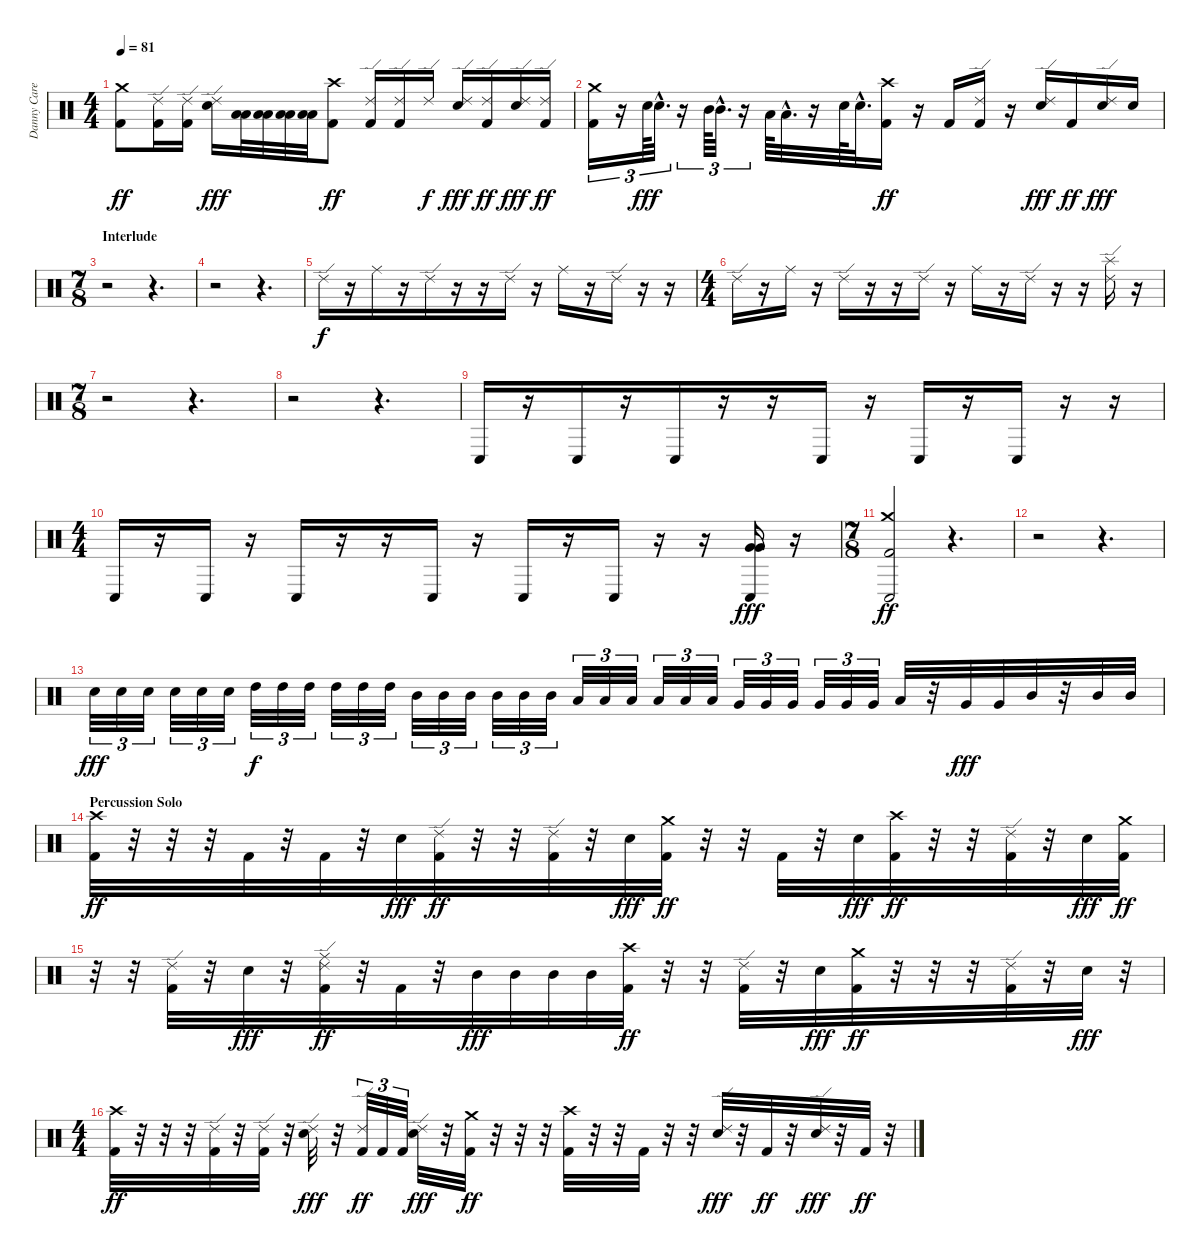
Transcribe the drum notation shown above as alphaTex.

\track ("Danny Carey" "Danny Care") {instrument percussion}
\staff {score}
\articulation defaults
\ts (4 4)
\tempo 81
\clef neutral
\ks c
("Crash medium (hit)" "Kick (hit) 2").8{dy ff} ("Ride (edge) 2" "Kick (hit) 2").16 ("Ride (edge) 2" "Kick (hit) 2").16 ("Ride (edge) 2" "Electric Snare (hit)").16{dy fff} ("Low Tom (hit)" "Low Tom (hit)").32 ("Low Tom (hit)" "Low Tom (hit)").32 ("Low Tom (hit)" "Low Tom (hit)").32 ("Low Tom (hit)" "Low Tom (hit)").32 ("Crash high (hit)" "Kick (hit) 2").8{dy ff} ("Ride (edge) 2" "Kick (hit) 2").16 ("Ride (edge) 2" "Kick (hit) 2").16 "Ride (edge) 2".16{dy f} ("Ride (edge) 2" "Electric Snare (hit)").16{dy fff} ("Ride (edge) 2" "Kick (hit) 2").16{dy ff} ("Ride (edge) 2" "Electric Snare (hit)").16{dy fff} ("Ride (edge) 2" "Kick (hit) 2").16{dy ff} |
("Crash medium (hit)" "Kick (hit) 2").16{tu (3 2)} r.16{tu (3 2)} "Electric Snare (hit)".64{tu (3 2) dy fff} "Electric Snare (hit)"{hac}.32{d tu (3 2)} r.16{tu (3 2)} "Mid Tom (hit)".64{tu (3 2)} "Mid Tom (hit)"{hac}.32{d tu (3 2)} r.16{tu (3 2)} "Low Tom (hit)".64 "Low Tom (hit)"{hac}.32{d} r.16 "Electric Snare (hit)".64 "Electric Snare (hit)"{hac}.32{d} ("Crash high (hit)" "Kick (hit) 2").16{dy ff} r.16 "Kick (hit) 2".16 ("Ride (edge) 2" "Kick (hit) 2").16 r.16 ("Ride (edge) 2" "Electric Snare (hit)").16{dy fff} "Kick (hit) 2".16{dy ff} ("Ride (edge) 2" "Electric Snare (hit)").16{dy fff} "Electric Snare (hit)".16 |
\ts (7 8)
\section ("" "Interlude")
r.2 r.4{d} |
r.2 r.4{d} |
"Ride (edge) 2".16{dy f} r.16 "Ride (middle)".16 r.16 "Ride (edge) 2".16 r.16 r.16 "Ride (edge) 2".16 r.16 "Ride (middle)".16 r.16 "Ride (edge) 2".16 r.16 r.16 |
\ts (4 4)
"Ride (edge) 2".16 r.16 "Ride (middle)".16 r.16 "Ride (edge) 2".16 r.16 r.16 "Ride (edge) 2".16 r.16 "Ride (middle)".16 r.16 "Ride (edge) 2".16 r.16 r.16 ("Splash (hit)" "Ride (edge) 2").16 r.16 |
\ts (7 8)
r.2 r.4{d} |
r.2 r.4{d} |
"Conga low (hit)".16 r.16 "Conga low (hit)".16 r.16 "Conga low (hit)".16 r.16 r.16 "Conga low (hit)".16 r.16 "Conga low (hit)".16 r.16 "Conga low (hit)".16 r.16 r.16 |
\ts (4 4)
"Conga low (hit)".16 r.16 "Conga low (hit)".16 r.16 "Conga low (hit)".16 r.16 r.16 "Conga low (hit)".16 r.16 "Conga low (hit)".16 r.16 "Conga low (hit)".16 r.16 r.16 ("Conga low (hit)" "Very Low Tom (hit)" "Very Low Tom (hit)").16{dy fff} r.16 |
\ts (7 8)
("Crash medium (hit)" "Conga low (hit)" "Kick (hit) 2").2{dy ff} r.4{d} |
r.2 r.4{d} |
"Electric Snare (hit)".32{tu (3 2) dy fff} "Electric Snare (hit)".32{tu (3 2)} "Electric Snare (hit)".32{tu (3 2)} "Electric Snare (hit)".32{tu (3 2)} "Electric Snare (hit)".32{tu (3 2)} "Electric Snare (hit)".32{tu (3 2)} "High Tom (hit)".32{tu (3 2) dy f} "High Tom (hit)".32{tu (3 2)} "High Tom (hit)".32{tu (3 2)} "High Tom (hit)".32{tu (3 2)} "High Tom (hit)".32{tu (3 2)} "High Tom (hit)".32{tu (3 2)} "Mid Tom (hit)".32{tu (3 2)} "Mid Tom (hit)".32{tu (3 2)} "Mid Tom (hit)".32{tu (3 2)} "Mid Tom (hit)".32{tu (3 2)} "Mid Tom (hit)".32{tu (3 2)} "Mid Tom (hit)".32{tu (3 2)} "Low Tom (hit)".32{tu (3 2)} "Low Tom (hit)".32{tu (3 2)} "Low Tom (hit)".32{tu (3 2)} "Low Tom (hit)".32{tu (3 2)} "Low Tom (hit)".32{tu (3 2)} "Low Tom (hit)".32{tu (3 2)} "Very Low Tom (hit)".32{tu (3 2)} "Very Low Tom (hit)".32{tu (3 2)} "Very Low Tom (hit)".32{tu (3 2)} "Very Low Tom (hit)".32{tu (3 2)} "Very Low Tom (hit)".32{tu (3 2)} "Very Low Tom (hit)".32{tu (3 2)} "Low Floor Tom (hit)".32 r.32 "Very Low Tom (hit)".32{dy fff} "Very Low Tom (hit)".32 "Mid Tom (hit)".32 r.32 "Mid Tom (hit)".32 "Mid Tom (hit)".32 |
\section ("" "Percussion Solo")
("Crash high (hit)" "Kick (hit) 2").32{dy ff} r.32 r.32 r.32 "Kick (hit) 2".32 r.32 "Kick (hit) 2".32 r.32 "Electric Snare (hit)".32{dy fff} ("Ride (edge) 2" "Kick (hit) 2").32{dy ff} r.32 r.32 ("Ride (edge) 2" "Kick (hit) 2").32 r.32 "Electric Snare (hit)".32{dy fff} ("Crash medium (hit)" "Kick (hit) 2").32{dy ff} r.32 r.32 "Kick (hit) 2".32 r.32 "Electric Snare (hit)".32{dy fff} ("Crash high (hit)" "Kick (hit) 2").32{dy ff} r.32 r.32 ("Ride (edge) 2" "Kick (hit) 2").32 r.32 "Electric Snare (hit)".32{dy fff} ("Crash medium (hit)" "Kick (hit) 2").32{dy ff} |
r.32 r.32 ("Ride (edge) 2" "Kick (hit) 2").32 r.32 "Electric Snare (hit)".32{dy fff} r.32 ("Ride (edge) 2" "Ride (middle)" "Kick (hit) 2").32{dy ff} r.32 "Kick (hit) 2".32 r.32 "Mid Tom (hit)".32{dy fff} "Mid Tom (hit)".32 "Mid Tom (hit)".32 "Mid Tom (hit)".32 ("Crash high (hit)" "Kick (hit) 2").32{dy ff} r.32 r.32 ("Ride (edge) 2" "Kick (hit) 2").32 r.32 "Electric Snare (hit)".32{dy fff} ("Crash medium (hit)" "Kick (hit) 2").32{dy ff} r.32 r.32 r.32 ("Ride (edge) 2" "Kick (hit) 2").32 r.32 "Electric Snare (hit)".32{dy fff} r.32 |
\ts (4 4)
("Crash high (hit)" "Kick (hit) 2").32{dy ff} r.32 r.32 r.32 ("Ride (edge) 2" "Kick (hit) 2").32 r.32 ("Ride (edge) 2" "Kick (hit) 2").32 r.32 ("Ride (edge) 2" "Electric Snare (hit)").32{dy fff} r.32 ("Ride (edge) 2" "Kick (hit) 2").32{tu (3 2) dy ff} "Kick (hit) 2".32{tu (3 2)} "Kick (hit) 2".32{tu (3 2)} ("Ride (edge) 2" "Electric Snare (hit)").32{dy fff} r.32 ("Crash medium (hit)" "Kick (hit) 2").32{dy ff} r.32 r.32 r.32 ("Crash high (hit)" "Kick (hit) 2").32 r.32 r.32 "Kick (hit) 2".32 r.32 r.32 ("Ride (edge) 2" "Electric Snare (hit)").32{dy fff} r.32 "Kick (hit) 2".32{dy ff} r.32 ("Ride (edge) 2" "Electric Snare (hit)").32{dy fff} r.32 "Kick (hit) 2".32{dy ff} r.32
